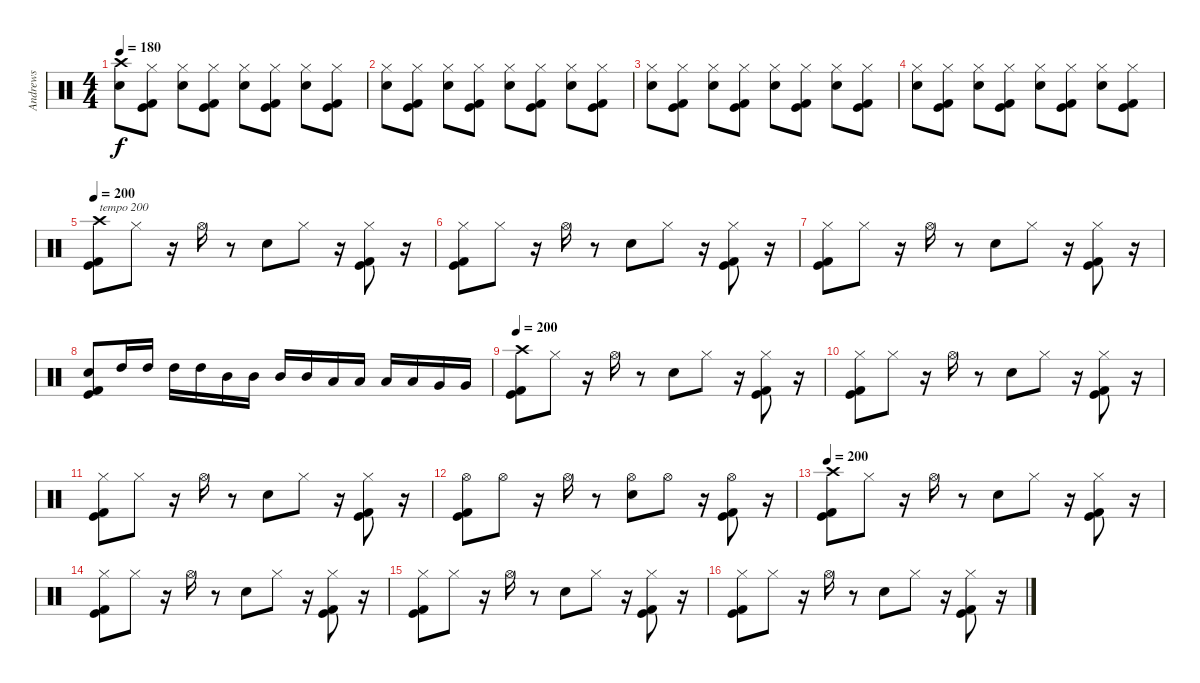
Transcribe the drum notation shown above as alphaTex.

\track ("Andrews" "Andrews") {instrument percussion}
\staff {score}
\articulation defaults
\ts (4 4)
\tempo 180
\clef neutral
\ks c
("Crash high (hit)" "Electric Snare (hit)").8{dy f} ("Hi-Hat (closed)" "Kick (hit) 2" "Kick (hit)").8 ("Hi-Hat (closed)" "Electric Snare (hit)").8 ("Hi-Hat (closed)" "Kick (hit) 2" "Kick (hit)").8 ("Hi-Hat (closed)" "Electric Snare (hit)").8 ("Hi-Hat (closed)" "Kick (hit) 2" "Kick (hit)").8 ("Hi-Hat (closed)" "Electric Snare (hit)").8 ("Hi-Hat (closed)" "Kick (hit) 2" "Kick (hit)").8 |
("Hi-Hat (closed)" "Electric Snare (hit)").8 ("Hi-Hat (closed)" "Kick (hit) 2" "Kick (hit)").8 ("Hi-Hat (closed)" "Electric Snare (hit)").8 ("Hi-Hat (closed)" "Kick (hit) 2" "Kick (hit)").8 ("Hi-Hat (closed)" "Electric Snare (hit)").8 ("Hi-Hat (closed)" "Kick (hit) 2" "Kick (hit)").8 ("Hi-Hat (closed)" "Electric Snare (hit)").8 ("Hi-Hat (closed)" "Kick (hit) 2" "Kick (hit)").8 |
("Hi-Hat (closed)" "Electric Snare (hit)").8 ("Hi-Hat (closed)" "Kick (hit) 2" "Kick (hit)").8 ("Hi-Hat (closed)" "Electric Snare (hit)").8 ("Hi-Hat (closed)" "Kick (hit) 2" "Kick (hit)").8 ("Hi-Hat (closed)" "Electric Snare (hit)").8 ("Hi-Hat (closed)" "Kick (hit) 2" "Kick (hit)").8 ("Hi-Hat (closed)" "Electric Snare (hit)").8 ("Hi-Hat (closed)" "Kick (hit) 2" "Kick (hit)").8 |
("Hi-Hat (closed)" "Electric Snare (hit)").8 ("Hi-Hat (closed)" "Kick (hit) 2" "Kick (hit)").8 ("Hi-Hat (closed)" "Electric Snare (hit)").8 ("Hi-Hat (closed)" "Kick (hit) 2" "Kick (hit)").8 ("Hi-Hat (closed)" "Electric Snare (hit)").8 ("Hi-Hat (closed)" "Kick (hit) 2" "Kick (hit)").8 ("Hi-Hat (closed)" "Electric Snare (hit)").8 ("Hi-Hat (closed)" "Kick (hit) 2" "Kick (hit)").8 |
\tempo 200
("Crash high (hit)" "Kick (hit) 2" "Kick (hit)").8{txt "tempo 200"} "Hi-Hat (closed)".8 r.16 "Hi-Hat (open)".16 r.8 "Electric Snare (hit)".8 "Hi-Hat (closed)".8 r.16 ("Hi-Hat (closed)" "Kick (hit) 2" "Kick (hit)").8 r.16 |
("Hi-Hat (closed)" "Kick (hit) 2" "Kick (hit)").8 "Hi-Hat (closed)".8 r.16 "Hi-Hat (open)".16 r.8 "Electric Snare (hit)".8 "Hi-Hat (closed)".8 r.16 ("Hi-Hat (closed)" "Kick (hit) 2" "Kick (hit)").8 r.16 |
("Hi-Hat (closed)" "Kick (hit) 2" "Kick (hit)").8 "Hi-Hat (closed)".8 r.16 "Hi-Hat (open)".16 r.8 "Electric Snare (hit)".8 "Hi-Hat (closed)".8 r.16 ("Hi-Hat (closed)" "Kick (hit) 2" "Kick (hit)").8 r.16 |
("Electric Snare (hit)" "Kick (hit) 2" "Kick (hit)").8 "High Tom (hit)".16 "High Tom (hit)".16 "High Tom (hit)".16 "High Tom (hit)".16 "Mid Tom (hit)".16 "Mid Tom (hit)".16 "Mid Tom (hit)".16 "Mid Tom (hit)".16 "Low Tom (hit)".16 "Low Tom (hit)".16 "Low Tom (hit)".16 "Low Tom (hit)".16 "Very Low Tom (hit)".16 "Very Low Tom (hit)".16 |
\tempo 200
("Crash high (hit)" "Kick (hit) 2" "Kick (hit)").8 "Hi-Hat (closed)".8 r.16 "Hi-Hat (open)".16 r.8 "Electric Snare (hit)".8 "Hi-Hat (closed)".8 r.16 ("Hi-Hat (closed)" "Kick (hit) 2" "Kick (hit)").8 r.16 |
("Hi-Hat (closed)" "Kick (hit) 2" "Kick (hit)").8 "Hi-Hat (closed)".8 r.16 "Hi-Hat (open)".16 r.8 "Electric Snare (hit)".8 "Hi-Hat (closed)".8 r.16 ("Hi-Hat (closed)" "Kick (hit) 2" "Kick (hit)").8 r.16 |
("Hi-Hat (closed)" "Kick (hit) 2" "Kick (hit)").8 "Hi-Hat (closed)".8 r.16 "Hi-Hat (open)".16 r.8 "Electric Snare (hit)".8 "Hi-Hat (closed)".8 r.16 ("Hi-Hat (closed)" "Kick (hit) 2" "Kick (hit)").8 r.16 |
("Hi-Hat (open)" "Kick (hit) 2" "Kick (hit)").8 "Hi-Hat (open)".8 r.16 "Hi-Hat (open)".16 r.8 ("Electric Snare (hit)" "Hi-Hat (open)").8 "Hi-Hat (open)".8 r.16 ("Hi-Hat (open)" "Kick (hit) 2" "Kick (hit)").8 r.16 |
\tempo 200
("Crash high (hit)" "Kick (hit) 2" "Kick (hit)").8 "Hi-Hat (closed)".8 r.16 "Hi-Hat (open)".16 r.8 "Electric Snare (hit)".8 "Hi-Hat (closed)".8 r.16 ("Hi-Hat (closed)" "Kick (hit) 2" "Kick (hit)").8 r.16 |
("Hi-Hat (closed)" "Kick (hit) 2" "Kick (hit)").8 "Hi-Hat (closed)".8 r.16 "Hi-Hat (open)".16 r.8 "Electric Snare (hit)".8 "Hi-Hat (closed)".8 r.16 ("Hi-Hat (closed)" "Kick (hit) 2" "Kick (hit)").8 r.16 |
("Hi-Hat (closed)" "Kick (hit) 2" "Kick (hit)").8 "Hi-Hat (closed)".8 r.16 "Hi-Hat (open)".16 r.8 "Electric Snare (hit)".8 "Hi-Hat (closed)".8 r.16 ("Hi-Hat (closed)" "Kick (hit) 2" "Kick (hit)").8 r.16 |
("Hi-Hat (closed)" "Kick (hit) 2" "Kick (hit)").8 "Hi-Hat (closed)".8 r.16 "Hi-Hat (open)".16 r.8 "Electric Snare (hit)".8 "Hi-Hat (closed)".8 r.16 ("Hi-Hat (closed)" "Kick (hit) 2" "Kick (hit)").8 r.16
